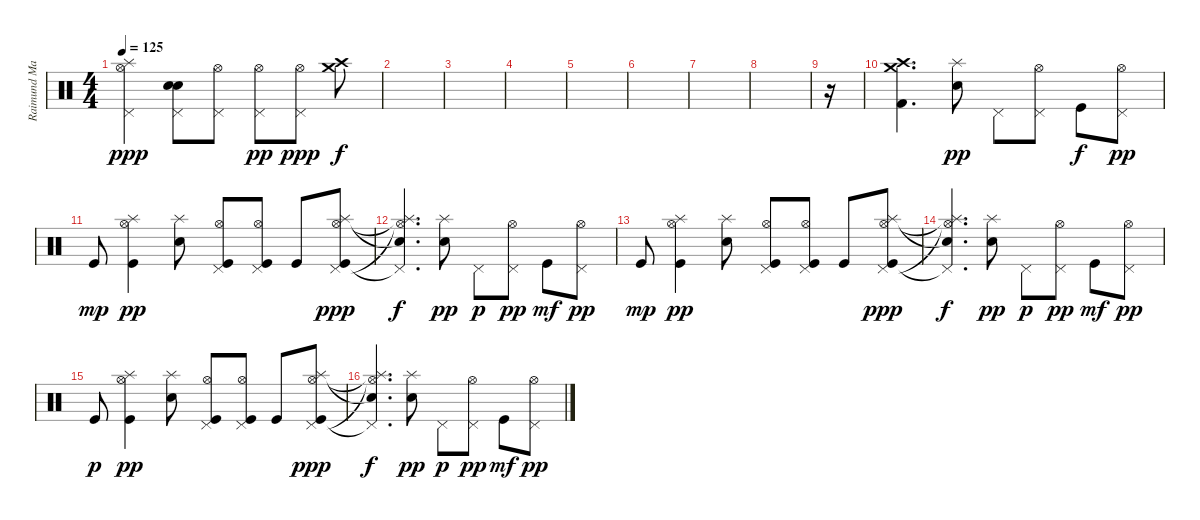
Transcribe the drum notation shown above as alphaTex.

\track ("Raimund Marasigan (Drums)" "Raimund Ma") {instrument percussion}
\staff {score}
\articulation defaults
\ts (4 4)
\tempo 125
\clef neutral
\ks c
("Pedal Hi-Hat (hit)" "Hi-Hat (open)" "Splash (hit)").4{dy ppp} ("Snare (hit) 2" "Pedal Hi-Hat (hit)" "Snare (hit) 2").8{bd 60} ("Pedal Hi-Hat (hit)" "Hi-Hat (open)").8 ("Pedal Hi-Hat (hit)" "Hi-Hat (open)").8{dy pp} ("Pedal Hi-Hat (hit)" "Hi-Hat (open)").8{dy ppp} ("Crash medium (hit)" "Crash high (hit)").8{dy f} |
|
|
|
|
|
|
|
r.16 |
("Crash high (hit)" "Crash medium (hit)" "Kick (hit) 2").4{d} ("Electric Snare (hit)" "Splash (hit)").8{dy pp} "Pedal Hi-Hat (hit)".8 ("Pedal Hi-Hat (hit)" "Hi-Hat (open)").8 "Kick (hit)".8{dy f} ("Pedal Hi-Hat (hit)" "Hi-Hat (open)").8{dy pp} |
"Kick (hit)".8{dy mp} ("Kick (hit)" "Splash (hit)" "Hi-Hat (open)").4{dy pp} ("Electric Snare (hit)" "Splash (hit)").8 ("Kick (hit)" "Pedal Hi-Hat (hit)" "Hi-Hat (open)").8 ("Kick (hit)" "Pedal Hi-Hat (hit)" "Hi-Hat (open)").8 "Kick (hit)".8 ("Kick (hit)" "Pedal Hi-Hat (hit)" "Hi-Hat (open)" "Splash (hit)").8{dy ppp} |
("Pedal Hi-Hat (hit)"{t} "Hi-Hat (open)"{t} "Splash (hit)"{t} "Snare (hit)"{t}).4{d dy f} ("Electric Snare (hit)" "Splash (hit)").8{dy pp} "Pedal Hi-Hat (hit)".8{dy p} ("Pedal Hi-Hat (hit)" "Hi-Hat (open)").8{dy pp} "Kick (hit)".8{dy mf} ("Pedal Hi-Hat (hit)" "Hi-Hat (open)").8{dy pp} |
"Kick (hit)".8{dy mp} ("Kick (hit)" "Splash (hit)" "Hi-Hat (open)").4{dy pp} ("Electric Snare (hit)" "Splash (hit)").8 ("Kick (hit)" "Pedal Hi-Hat (hit)" "Hi-Hat (open)").8 ("Kick (hit)" "Pedal Hi-Hat (hit)" "Hi-Hat (open)").8 "Kick (hit)".8 ("Kick (hit)" "Pedal Hi-Hat (hit)" "Hi-Hat (open)" "Splash (hit)").8{dy ppp} |
("Pedal Hi-Hat (hit)"{t} "Hi-Hat (open)"{t} "Splash (hit)"{t} "Snare (hit)"{t}).4{d dy f} ("Electric Snare (hit)" "Splash (hit)").8{dy pp} "Pedal Hi-Hat (hit)".8{dy p} ("Pedal Hi-Hat (hit)" "Hi-Hat (open)").8{dy pp} "Kick (hit)".8{dy mf} ("Pedal Hi-Hat (hit)" "Hi-Hat (open)").8{dy pp} |
"Kick (hit)".8{dy p} ("Kick (hit)" "Splash (hit)" "Hi-Hat (open)").4{dy pp} ("Electric Snare (hit)" "Splash (hit)").8 ("Kick (hit)" "Pedal Hi-Hat (hit)" "Hi-Hat (open)").8 ("Kick (hit)" "Pedal Hi-Hat (hit)" "Hi-Hat (open)").8 "Kick (hit)".8 ("Kick (hit)" "Pedal Hi-Hat (hit)" "Hi-Hat (open)" "Splash (hit)").8{dy ppp} |
("Pedal Hi-Hat (hit)"{t} "Hi-Hat (open)"{t} "Splash (hit)"{t} "Snare (hit)"{t}).4{d dy f} ("Electric Snare (hit)" "Splash (hit)").8{dy pp} "Pedal Hi-Hat (hit)".8{dy p} ("Pedal Hi-Hat (hit)" "Hi-Hat (open)").8{dy pp} "Kick (hit)".8{dy mf} ("Pedal Hi-Hat (hit)" "Hi-Hat (open)").8{dy pp}
